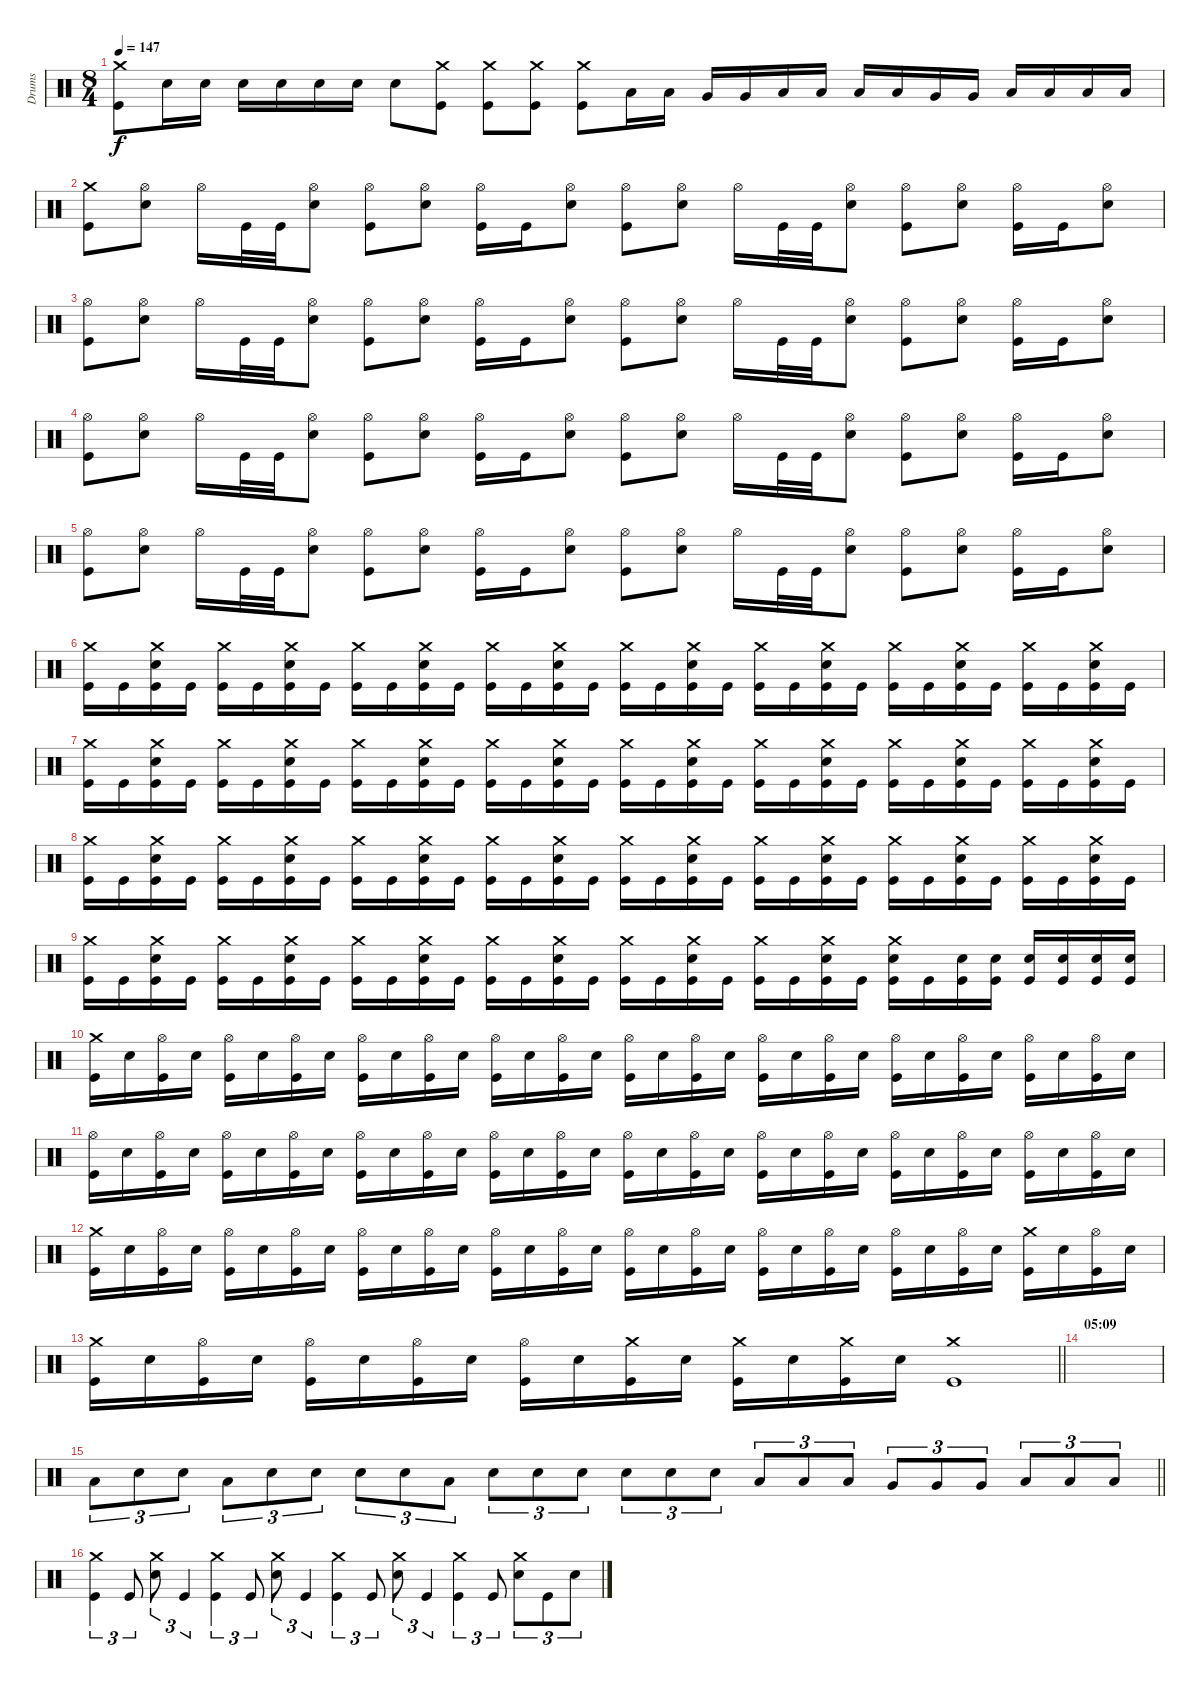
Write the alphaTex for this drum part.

\track ("Drums" "Drums") {instrument percussion}
\staff {score}
\articulation defaults
\ts (8 4)
\tempo 147
\clef neutral
\ks c
("Crash medium (hit)" "Kick (hit)").8{dy f} "Electric Snare (hit)".16 "Electric Snare (hit)".16 "Electric Snare (hit)".16 "Electric Snare (hit)".16 "Electric Snare (hit)".16 "Electric Snare (hit)".16 "Electric Snare (hit)".8 ("Crash medium (hit)" "Kick (hit)").8 ("Crash medium (hit)" "Kick (hit)").8 ("Crash medium (hit)" "Kick (hit)").8 ("Crash medium (hit)" "Kick (hit)").8 "Low Tom (hit)".16 "Low Tom (hit)".16 "Very Low Tom (hit)".16 "Very Low Tom (hit)".16 "Low Floor Tom (hit)".16 "Low Floor Tom (hit)".16 "Low Tom (hit)".16 "Low Tom (hit)".16 "Very Low Tom (hit)".16 "Very Low Tom (hit)".16 "Low Floor Tom (hit)".16 "Low Floor Tom (hit)".16 "Low Tom (hit)".16 "Low Tom (hit)".16 |
("Crash medium (hit)" "Kick (hit)").8 ("Hi-Hat (open)" "Electric Snare (hit)").8 "Hi-Hat (open)".16 "Kick (hit)".32 "Kick (hit)".32 ("Hi-Hat (open)" "Electric Snare (hit)").8 ("Hi-Hat (open)" "Kick (hit)").8 ("Hi-Hat (open)" "Electric Snare (hit)").8 ("Hi-Hat (open)" "Kick (hit)").16 "Kick (hit)".16 ("Hi-Hat (open)" "Electric Snare (hit)").8 ("Hi-Hat (open)" "Kick (hit)").8 ("Hi-Hat (open)" "Electric Snare (hit)").8 "Hi-Hat (open)".16 "Kick (hit)".32 "Kick (hit)".32 ("Hi-Hat (open)" "Electric Snare (hit)").8 ("Hi-Hat (open)" "Kick (hit)").8 ("Hi-Hat (open)" "Electric Snare (hit)").8 ("Hi-Hat (open)" "Kick (hit)").16 "Kick (hit)".16 ("Hi-Hat (open)" "Electric Snare (hit)").8 |
("Hi-Hat (open)" "Kick (hit)").8 ("Hi-Hat (open)" "Electric Snare (hit)").8 "Hi-Hat (open)".16 "Kick (hit)".32 "Kick (hit)".32 ("Hi-Hat (open)" "Electric Snare (hit)").8 ("Hi-Hat (open)" "Kick (hit)").8 ("Hi-Hat (open)" "Electric Snare (hit)").8 ("Hi-Hat (open)" "Kick (hit)").16 "Kick (hit)".16 ("Hi-Hat (open)" "Electric Snare (hit)").8 ("Hi-Hat (open)" "Kick (hit)").8 ("Hi-Hat (open)" "Electric Snare (hit)").8 "Hi-Hat (open)".16 "Kick (hit)".32 "Kick (hit)".32 ("Hi-Hat (open)" "Electric Snare (hit)").8 ("Hi-Hat (open)" "Kick (hit)").8 ("Hi-Hat (open)" "Electric Snare (hit)").8 ("Hi-Hat (open)" "Kick (hit)").16 "Kick (hit)".16 ("Hi-Hat (open)" "Electric Snare (hit)").8 |
("Hi-Hat (open)" "Kick (hit)").8 ("Hi-Hat (open)" "Electric Snare (hit)").8 "Hi-Hat (open)".16 "Kick (hit)".32 "Kick (hit)".32 ("Hi-Hat (open)" "Electric Snare (hit)").8 ("Hi-Hat (open)" "Kick (hit)").8 ("Hi-Hat (open)" "Electric Snare (hit)").8 ("Hi-Hat (open)" "Kick (hit)").16 "Kick (hit)".16 ("Hi-Hat (open)" "Electric Snare (hit)").8 ("Hi-Hat (open)" "Kick (hit)").8 ("Hi-Hat (open)" "Electric Snare (hit)").8 "Hi-Hat (open)".16 "Kick (hit)".32 "Kick (hit)".32 ("Hi-Hat (open)" "Electric Snare (hit)").8 ("Hi-Hat (open)" "Kick (hit)").8 ("Hi-Hat (open)" "Electric Snare (hit)").8 ("Hi-Hat (open)" "Kick (hit)").16 "Kick (hit)".16 ("Hi-Hat (open)" "Electric Snare (hit)").8 |
("Hi-Hat (open)" "Kick (hit)").8 ("Hi-Hat (open)" "Electric Snare (hit)").8 "Hi-Hat (open)".16 "Kick (hit)".32 "Kick (hit)".32 ("Hi-Hat (open)" "Electric Snare (hit)").8 ("Hi-Hat (open)" "Kick (hit)").8 ("Hi-Hat (open)" "Electric Snare (hit)").8 ("Hi-Hat (open)" "Kick (hit)").16 "Kick (hit)".16 ("Hi-Hat (open)" "Electric Snare (hit)").8 ("Hi-Hat (open)" "Kick (hit)").8 ("Hi-Hat (open)" "Electric Snare (hit)").8 "Hi-Hat (open)".16 "Kick (hit)".32 "Kick (hit)".32 ("Hi-Hat (open)" "Electric Snare (hit)").8 ("Hi-Hat (open)" "Kick (hit)").8 ("Hi-Hat (open)" "Electric Snare (hit)").8 ("Hi-Hat (open)" "Kick (hit)").16 "Kick (hit)".16 ("Hi-Hat (open)" "Electric Snare (hit)").8 |
("Crash medium (hit)" "Kick (hit)").16 "Kick (hit)".16 ("Crash medium (hit)" "Electric Snare (hit)" "Kick (hit)").16 "Kick (hit)".16 ("Crash medium (hit)" "Kick (hit)").16 "Kick (hit)".16 ("Crash medium (hit)" "Electric Snare (hit)" "Kick (hit)").16 "Kick (hit)".16 ("Crash medium (hit)" "Kick (hit)").16 "Kick (hit)".16 ("Crash medium (hit)" "Electric Snare (hit)" "Kick (hit)").16 "Kick (hit)".16 ("Crash medium (hit)" "Kick (hit)").16 "Kick (hit)".16 ("Crash medium (hit)" "Electric Snare (hit)" "Kick (hit)").16 "Kick (hit)".16 ("Crash medium (hit)" "Kick (hit)").16 "Kick (hit)".16 ("Crash medium (hit)" "Electric Snare (hit)" "Kick (hit)").16 "Kick (hit)".16 ("Crash medium (hit)" "Kick (hit)").16 "Kick (hit)".16 ("Crash medium (hit)" "Electric Snare (hit)" "Kick (hit)").16 "Kick (hit)".16 ("Crash medium (hit)" "Kick (hit)").16 "Kick (hit)".16 ("Crash medium (hit)" "Electric Snare (hit)" "Kick (hit)").16 "Kick (hit)".16 ("Crash medium (hit)" "Kick (hit)").16 "Kick (hit)".16 ("Crash medium (hit)" "Electric Snare (hit)" "Kick (hit)").16 "Kick (hit)".16 |
("Crash medium (hit)" "Kick (hit)").16 "Kick (hit)".16 ("Crash medium (hit)" "Electric Snare (hit)" "Kick (hit)").16 "Kick (hit)".16 ("Crash medium (hit)" "Kick (hit)").16 "Kick (hit)".16 ("Crash medium (hit)" "Electric Snare (hit)" "Kick (hit)").16 "Kick (hit)".16 ("Crash medium (hit)" "Kick (hit)").16 "Kick (hit)".16 ("Crash medium (hit)" "Electric Snare (hit)" "Kick (hit)").16 "Kick (hit)".16 ("Crash medium (hit)" "Kick (hit)").16 "Kick (hit)".16 ("Crash medium (hit)" "Electric Snare (hit)" "Kick (hit)").16 "Kick (hit)".16 ("Crash medium (hit)" "Kick (hit)").16 "Kick (hit)".16 ("Crash medium (hit)" "Electric Snare (hit)" "Kick (hit)").16 "Kick (hit)".16 ("Crash medium (hit)" "Kick (hit)").16 "Kick (hit)".16 ("Crash medium (hit)" "Electric Snare (hit)" "Kick (hit)").16 "Kick (hit)".16 ("Crash medium (hit)" "Kick (hit)").16 "Kick (hit)".16 ("Crash medium (hit)" "Electric Snare (hit)" "Kick (hit)").16 "Kick (hit)".16 ("Crash medium (hit)" "Kick (hit)").16 "Kick (hit)".16 ("Crash medium (hit)" "Electric Snare (hit)" "Kick (hit)").16 "Kick (hit)".16 |
("Crash medium (hit)" "Kick (hit)").16 "Kick (hit)".16 ("Crash medium (hit)" "Electric Snare (hit)" "Kick (hit)").16 "Kick (hit)".16 ("Crash medium (hit)" "Kick (hit)").16 "Kick (hit)".16 ("Crash medium (hit)" "Electric Snare (hit)" "Kick (hit)").16 "Kick (hit)".16 ("Crash medium (hit)" "Kick (hit)").16 "Kick (hit)".16 ("Crash medium (hit)" "Electric Snare (hit)" "Kick (hit)").16 "Kick (hit)".16 ("Crash medium (hit)" "Kick (hit)").16 "Kick (hit)".16 ("Crash medium (hit)" "Electric Snare (hit)" "Kick (hit)").16 "Kick (hit)".16 ("Crash medium (hit)" "Kick (hit)").16 "Kick (hit)".16 ("Crash medium (hit)" "Electric Snare (hit)" "Kick (hit)").16 "Kick (hit)".16 ("Crash medium (hit)" "Kick (hit)").16 "Kick (hit)".16 ("Crash medium (hit)" "Electric Snare (hit)" "Kick (hit)").16 "Kick (hit)".16 ("Crash medium (hit)" "Kick (hit)").16 "Kick (hit)".16 ("Crash medium (hit)" "Electric Snare (hit)" "Kick (hit)").16 "Kick (hit)".16 ("Crash medium (hit)" "Kick (hit)").16 "Kick (hit)".16 ("Crash medium (hit)" "Electric Snare (hit)" "Kick (hit)").16 "Kick (hit)".16 |
("Crash medium (hit)" "Kick (hit)").16 "Kick (hit)".16 ("Crash medium (hit)" "Electric Snare (hit)" "Kick (hit)").16 "Kick (hit)".16 ("Crash medium (hit)" "Kick (hit)").16 "Kick (hit)".16 ("Crash medium (hit)" "Electric Snare (hit)" "Kick (hit)").16 "Kick (hit)".16 ("Crash medium (hit)" "Kick (hit)").16 "Kick (hit)".16 ("Crash medium (hit)" "Electric Snare (hit)" "Kick (hit)").16 "Kick (hit)".16 ("Crash medium (hit)" "Kick (hit)").16 "Kick (hit)".16 ("Crash medium (hit)" "Electric Snare (hit)" "Kick (hit)").16 "Kick (hit)".16 ("Crash medium (hit)" "Kick (hit)").16 "Kick (hit)".16 ("Crash medium (hit)" "Electric Snare (hit)" "Kick (hit)").16 "Kick (hit)".16 ("Crash medium (hit)" "Kick (hit)").16 "Kick (hit)".16 ("Crash medium (hit)" "Electric Snare (hit)" "Kick (hit)").16 "Kick (hit)".16 ("Crash medium (hit)" "Electric Snare (hit)" "Kick (hit)").16 "Kick (hit)".16 ("Electric Snare (hit)" "Kick (hit)").16 ("Electric Snare (hit)" "Kick (hit)").16 ("Electric Snare (hit)" "Kick (hit)").16 ("Electric Snare (hit)" "Kick (hit)").16 ("Electric Snare (hit)" "Kick (hit)").16 ("Electric Snare (hit)" "Kick (hit)").16 |
("Crash medium (hit)" "Kick (hit)").16 "Electric Snare (hit)".16 ("Hi-Hat (open)" "Kick (hit)").16 "Electric Snare (hit)".16 ("Hi-Hat (open)" "Kick (hit)").16 "Electric Snare (hit)".16 ("Hi-Hat (open)" "Kick (hit)").16 "Electric Snare (hit)".16 ("Hi-Hat (open)" "Kick (hit)").16 "Electric Snare (hit)".16 ("Hi-Hat (open)" "Kick (hit)").16 "Electric Snare (hit)".16 ("Hi-Hat (open)" "Kick (hit)").16 "Electric Snare (hit)".16 ("Hi-Hat (open)" "Kick (hit)").16 "Electric Snare (hit)".16 ("Hi-Hat (open)" "Kick (hit)").16 "Electric Snare (hit)".16 ("Hi-Hat (open)" "Kick (hit)").16 "Electric Snare (hit)".16 ("Hi-Hat (open)" "Kick (hit)").16 "Electric Snare (hit)".16 ("Hi-Hat (open)" "Kick (hit)").16 "Electric Snare (hit)".16 ("Hi-Hat (open)" "Kick (hit)").16 "Electric Snare (hit)".16 ("Hi-Hat (open)" "Kick (hit)").16 "Electric Snare (hit)".16 ("Hi-Hat (open)" "Kick (hit)").16 "Electric Snare (hit)".16 ("Hi-Hat (open)" "Kick (hit)").16 "Electric Snare (hit)".16 |
("Hi-Hat (open)" "Kick (hit)").16 "Electric Snare (hit)".16 ("Hi-Hat (open)" "Kick (hit)").16 "Electric Snare (hit)".16 ("Hi-Hat (open)" "Kick (hit)").16 "Electric Snare (hit)".16 ("Hi-Hat (open)" "Kick (hit)").16 "Electric Snare (hit)".16 ("Hi-Hat (open)" "Kick (hit)").16 "Electric Snare (hit)".16 ("Hi-Hat (open)" "Kick (hit)").16 "Electric Snare (hit)".16 ("Hi-Hat (open)" "Kick (hit)").16 "Electric Snare (hit)".16 ("Hi-Hat (open)" "Kick (hit)").16 "Electric Snare (hit)".16 ("Hi-Hat (open)" "Kick (hit)").16 "Electric Snare (hit)".16 ("Hi-Hat (open)" "Kick (hit)").16 "Electric Snare (hit)".16 ("Hi-Hat (open)" "Kick (hit)").16 "Electric Snare (hit)".16 ("Hi-Hat (open)" "Kick (hit)").16 "Electric Snare (hit)".16 ("Hi-Hat (open)" "Kick (hit)").16 "Electric Snare (hit)".16 ("Hi-Hat (open)" "Kick (hit)").16 "Electric Snare (hit)".16 ("Hi-Hat (open)" "Kick (hit)").16 "Electric Snare (hit)".16 ("Hi-Hat (open)" "Kick (hit)").16 "Electric Snare (hit)".16 |
("Crash medium (hit)" "Kick (hit)").16 "Electric Snare (hit)".16 ("Hi-Hat (open)" "Kick (hit)").16 "Electric Snare (hit)".16 ("Hi-Hat (open)" "Kick (hit)").16 "Electric Snare (hit)".16 ("Hi-Hat (open)" "Kick (hit)").16 "Electric Snare (hit)".16 ("Hi-Hat (open)" "Kick (hit)").16 "Electric Snare (hit)".16 ("Hi-Hat (open)" "Kick (hit)").16 "Electric Snare (hit)".16 ("Hi-Hat (open)" "Kick (hit)").16 "Electric Snare (hit)".16 ("Hi-Hat (open)" "Kick (hit)").16 "Electric Snare (hit)".16 ("Hi-Hat (open)" "Kick (hit)").16 "Electric Snare (hit)".16 ("Hi-Hat (open)" "Kick (hit)").16 "Electric Snare (hit)".16 ("Hi-Hat (open)" "Kick (hit)").16 "Electric Snare (hit)".16 ("Hi-Hat (open)" "Kick (hit)").16 "Electric Snare (hit)".16 ("Hi-Hat (open)" "Kick (hit)").16 "Electric Snare (hit)".16 ("Hi-Hat (open)" "Kick (hit)").16 "Electric Snare (hit)".16 ("Crash medium (hit)" "Kick (hit)").16 "Electric Snare (hit)".16 ("Hi-Hat (open)" "Kick (hit)").16 "Electric Snare (hit)".16 |
\barLineRight lightlight
("Crash medium (hit)" "Kick (hit)").16 "Electric Snare (hit)".16 ("Hi-Hat (open)" "Kick (hit)").16 "Electric Snare (hit)".16 ("Hi-Hat (open)" "Kick (hit)").16 "Electric Snare (hit)".16 ("Hi-Hat (open)" "Kick (hit)").16 "Electric Snare (hit)".16 ("Hi-Hat (open)" "Kick (hit)").16 "Electric Snare (hit)".16 ("Crash medium (hit)" "Kick (hit)").16 "Electric Snare (hit)".16 ("Crash medium (hit)" "Kick (hit)").16 "Electric Snare (hit)".16 ("Crash medium (hit)" "Kick (hit)").16 "Electric Snare (hit)".16 ("Crash medium (hit)" "Kick (hit)").1 |
\section ("" "05:09")
|
\barLineRight lightlight "Low Floor Tom (hit)".8{tu (3 2)} "Electric Snare (hit)".8{tu (3 2)} "Electric Snare (hit)".8{tu (3 2)} "Low Floor Tom (hit)".8{tu (3 2)} "Electric Snare (hit)".8{tu (3 2)} "Electric Snare (hit)".8{tu (3 2)} "Electric Snare (hit)".8{tu (3 2)} "Electric Snare (hit)".8{tu (3 2)} "Low Floor Tom (hit)".8{tu (3 2)} "Electric Snare (hit)".8{tu (3 2)} "Electric Snare (hit)".8{tu (3 2)} "Electric Snare (hit)".8{tu (3 2)} "Electric Snare (hit)".8{tu (3 2)} "Electric Snare (hit)".8{tu (3 2)} "Electric Snare (hit)".8{tu (3 2)} "Low Tom (hit)".8{tu (3 2)} "Low Tom (hit)".8{tu (3 2)} "Low Tom (hit)".8{tu (3 2)} "Very Low Tom (hit)".8{tu (3 2)} "Very Low Tom (hit)".8{tu (3 2)} "Very Low Tom (hit)".8{tu (3 2)} "Low Floor Tom (hit)".8{tu (3 2)} "Low Floor Tom (hit)".8{tu (3 2)} "Low Floor Tom (hit)".8{tu (3 2)}
|
("Crash medium (hit)" "Kick (hit)").4{tu (3 2)} "Kick (hit)".8{tu (3 2)} ("Crash medium (hit)" "Electric Snare (hit)").8{tu (3 2)} "Kick (hit)".4{tu (3 2)} ("Crash medium (hit)" "Kick (hit)").4{tu (3 2)} "Kick (hit)".8{tu (3 2)} ("Crash medium (hit)" "Electric Snare (hit)").8{tu (3 2)} "Kick (hit)".4{tu (3 2)} ("Crash medium (hit)" "Kick (hit)").4{tu (3 2)} "Kick (hit)".8{tu (3 2)} ("Crash medium (hit)" "Electric Snare (hit)").8{tu (3 2)} "Kick (hit)".4{tu (3 2)} ("Crash medium (hit)" "Kick (hit)").4{tu (3 2)} "Kick (hit)".8{tu (3 2)} ("Crash medium (hit)" "Electric Snare (hit)").8{tu (3 2)} "Kick (hit)".8{tu (3 2)} "Electric Snare (hit)".8{tu (3 2)}
